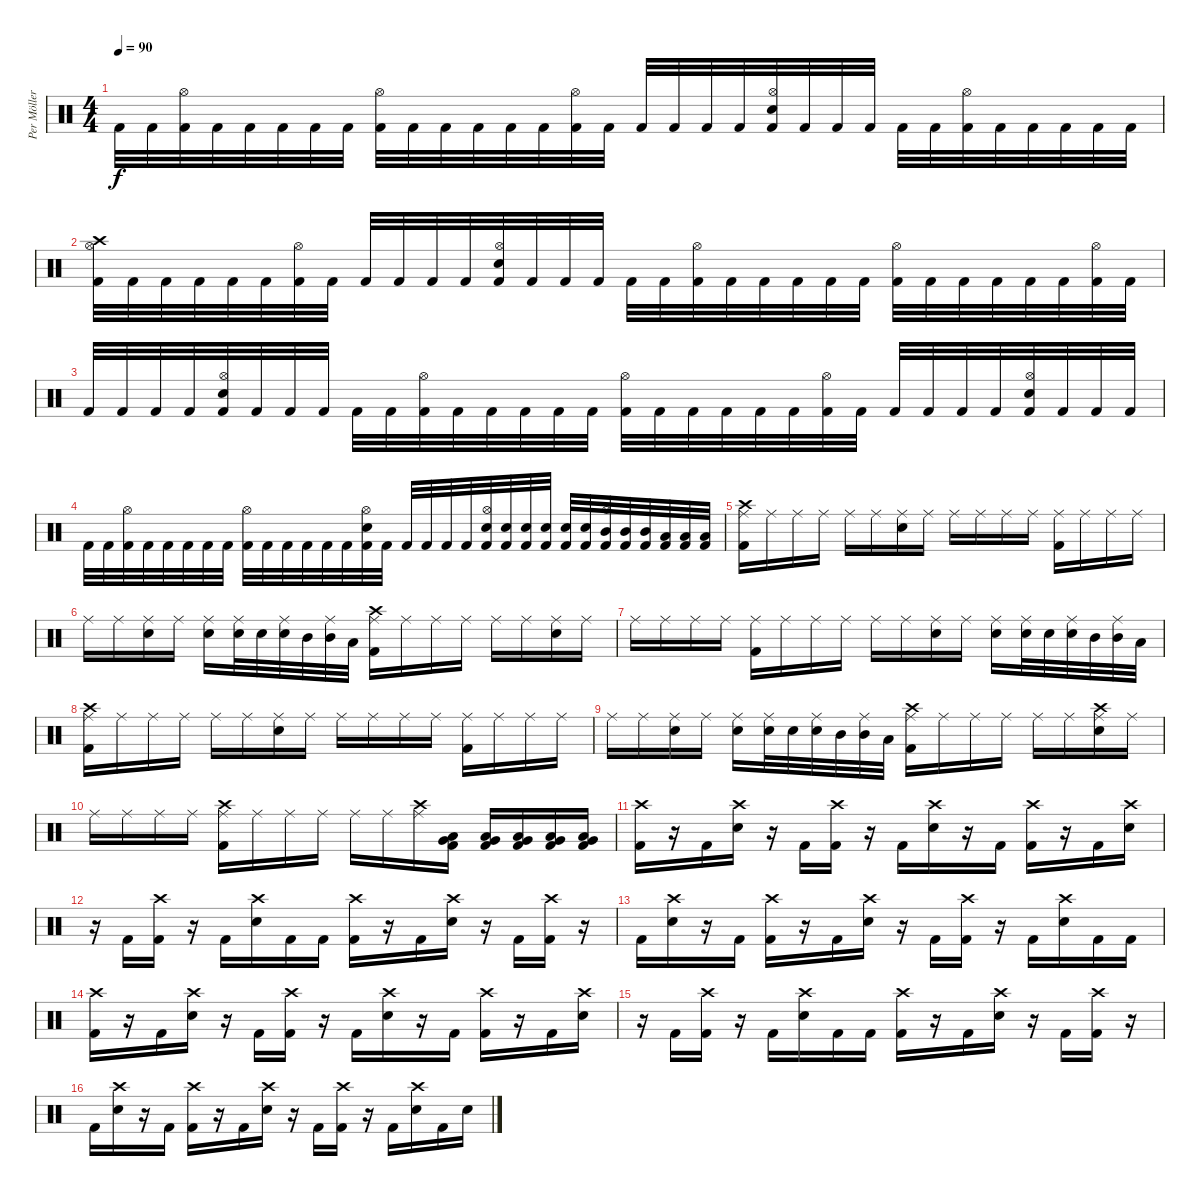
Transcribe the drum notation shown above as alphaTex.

\track ("Per Möller-Jensen" "Per Möller") {instrument percussion}
\staff {score}
\articulation defaults
\ts (4 4)
\tempo 90
\clef neutral
\ks c "Kick (hit) 2".32{dy f} "Kick (hit) 2".32
("Hi-Hat (open)" "Kick (hit) 2").32 "Kick (hit) 2".32 "Kick (hit) 2".32 "Kick (hit) 2".32 "Kick (hit) 2".32 "Kick (hit) 2".32 ("Hi-Hat (open)" "Kick (hit) 2").32 "Kick (hit) 2".32 "Kick (hit) 2".32 "Kick (hit) 2".32 "Kick (hit) 2".32 "Kick (hit) 2".32 ("Hi-Hat (open)" "Kick (hit) 2").32 "Kick (hit) 2".32 "Kick (hit) 2".32 "Kick (hit) 2".32 "Kick (hit) 2".32 "Kick (hit) 2".32 ("Snare (hit) 2" "Hi-Hat (open)" "Kick (hit) 2").32 "Kick (hit) 2".32 "Kick (hit) 2".32 "Kick (hit) 2".32 "Kick (hit) 2".32 "Kick (hit) 2".32 ("Hi-Hat (open)" "Kick (hit) 2").32 "Kick (hit) 2".32 "Kick (hit) 2".32 "Kick (hit) 2".32 "Kick (hit) 2".32 "Kick (hit) 2".32 |
("Crash high (hit)" "Hi-Hat (open)" "Kick (hit) 2").32 "Kick (hit) 2".32 "Kick (hit) 2".32 "Kick (hit) 2".32 "Kick (hit) 2".32 "Kick (hit) 2".32 ("Hi-Hat (open)" "Kick (hit) 2").32 "Kick (hit) 2".32 "Kick (hit) 2".32 "Kick (hit) 2".32 "Kick (hit) 2".32 "Kick (hit) 2".32 ("Snare (hit) 2" "Hi-Hat (open)" "Kick (hit) 2").32 "Kick (hit) 2".32 "Kick (hit) 2".32 "Kick (hit) 2".32 "Kick (hit) 2".32 "Kick (hit) 2".32 ("Hi-Hat (open)" "Kick (hit) 2").32 "Kick (hit) 2".32 "Kick (hit) 2".32 "Kick (hit) 2".32 "Kick (hit) 2".32 "Kick (hit) 2".32 ("Hi-Hat (open)" "Kick (hit) 2").32 "Kick (hit) 2".32 "Kick (hit) 2".32 "Kick (hit) 2".32 "Kick (hit) 2".32 "Kick (hit) 2".32 ("Hi-Hat (open)" "Kick (hit) 2").32 "Kick (hit) 2".32 |
"Kick (hit) 2".32 "Kick (hit) 2".32 "Kick (hit) 2".32 "Kick (hit) 2".32 ("Snare (hit) 2" "Hi-Hat (open)" "Kick (hit) 2").32 "Kick (hit) 2".32 "Kick (hit) 2".32 "Kick (hit) 2".32 "Kick (hit) 2".32 "Kick (hit) 2".32 ("Hi-Hat (open)" "Kick (hit) 2").32 "Kick (hit) 2".32 "Kick (hit) 2".32 "Kick (hit) 2".32 "Kick (hit) 2".32 "Kick (hit) 2".32 ("Hi-Hat (open)" "Kick (hit) 2").32 "Kick (hit) 2".32 "Kick (hit) 2".32 "Kick (hit) 2".32 "Kick (hit) 2".32 "Kick (hit) 2".32 ("Hi-Hat (open)" "Kick (hit) 2").32 "Kick (hit) 2".32 "Kick (hit) 2".32 "Kick (hit) 2".32 "Kick (hit) 2".32 "Kick (hit) 2".32 ("Snare (hit) 2" "Hi-Hat (open)" "Kick (hit) 2").32 "Kick (hit) 2".32 "Kick (hit) 2".32 "Kick (hit) 2".32 |
"Kick (hit) 2".32 "Kick (hit) 2".32 ("Hi-Hat (open)" "Kick (hit) 2").32 "Kick (hit) 2".32 "Kick (hit) 2".32 "Kick (hit) 2".32 "Kick (hit) 2".32 "Kick (hit) 2".32 ("Hi-Hat (open)" "Kick (hit) 2").32 "Kick (hit) 2".32 "Kick (hit) 2".32 "Kick (hit) 2".32 "Kick (hit) 2".32 "Kick (hit) 2".32 ("Snare (hit) 2" "Hi-Hat (open)" "Kick (hit) 2").32 "Kick (hit) 2".32 "Kick (hit) 2".32 "Kick (hit) 2".32 "Kick (hit) 2".32 "Kick (hit) 2".32 ("Snare (hit) 2" "Hi-Hat (open)" "Kick (hit) 2").32 ("Snare (hit) 2" "Kick (hit) 2").32 ("Snare (hit) 2" "Kick (hit) 2").32 ("Snare (hit) 2" "Kick (hit) 2").32 ("Snare (hit) 2" "Kick (hit) 2").32 ("Snare (hit) 2" "Kick (hit) 2").32 ("Mid Tom (hit)" "Hi-Hat (open)" "Kick (hit) 2").32 ("Mid Tom (hit)" "Kick (hit) 2").32 ("Mid Tom (hit)" "Kick (hit) 2").32 ("Low Tom (hit)" "Kick (hit) 2").32 ("Low Tom (hit)" "Kick (hit) 2").32 ("Low Tom (hit)" "Kick (hit) 2").32 |
("Crash high (hit)" "Ride (middle)" "Kick (hit) 2").16 "Ride (middle)".16 "Ride (middle)".16 "Ride (middle)".16 "Ride (middle)".16 "Ride (middle)".16 ("Snare (hit) 2" "Ride (middle)").16 "Ride (middle)".16 "Ride (middle)".16 "Ride (middle)".16 "Ride (middle)".16 "Ride (middle)".16 ("Ride (middle)" "Kick (hit) 2").16 "Ride (middle)".16 "Ride (middle)".16 "Ride (middle)".16 |
"Ride (middle)".16 "Ride (middle)".16 ("Snare (hit) 2" "Ride (middle)").16 "Ride (middle)".16 ("Snare (hit) 2" "Ride (middle)").16 ("Snare (hit) 2" "Ride (middle)").32 "Snare (hit) 2".32 ("Snare (hit) 2" "Ride (middle)").32 "Mid Tom (hit)".32 ("Mid Tom (hit)" "Ride (middle)").32 "Low Tom (hit)".32 ("Crash high (hit)" "Ride (middle)" "Kick (hit) 2").16 "Ride (middle)".16 "Ride (middle)".16 "Ride (middle)".16 "Ride (middle)".16 "Ride (middle)".16 ("Snare (hit) 2" "Ride (middle)").16 "Ride (middle)".16 |
"Ride (middle)".16 "Ride (middle)".16 "Ride (middle)".16 "Ride (middle)".16 ("Ride (middle)" "Kick (hit) 2").16 "Ride (middle)".16 "Ride (middle)".16 "Ride (middle)".16 "Ride (middle)".16 "Ride (middle)".16 ("Snare (hit) 2" "Ride (middle)").16 "Ride (middle)".16 ("Snare (hit) 2" "Ride (middle)").16 ("Snare (hit) 2" "Ride (middle)").32 "Snare (hit) 2".32 ("Snare (hit) 2" "Ride (middle)").32 "Mid Tom (hit)".32 ("Mid Tom (hit)" "Ride (middle)").32 "Low Tom (hit)".32 |
("Crash high (hit)" "Ride (middle)" "Kick (hit) 2").16 "Ride (middle)".16 "Ride (middle)".16 "Ride (middle)".16 "Ride (middle)".16 "Ride (middle)".16 ("Snare (hit) 2" "Ride (middle)").16 "Ride (middle)".16 "Ride (middle)".16 "Ride (middle)".16 "Ride (middle)".16 "Ride (middle)".16 ("Ride (middle)" "Kick (hit) 2").16 "Ride (middle)".16 "Ride (middle)".16 "Ride (middle)".16 |
"Ride (middle)".16 "Ride (middle)".16 ("Snare (hit) 2" "Ride (middle)").16 "Ride (middle)".16 ("Snare (hit) 2" "Ride (middle)").16 ("Snare (hit) 2" "Ride (middle)").32 "Snare (hit) 2".32 ("Snare (hit) 2" "Ride (middle)").32 "Mid Tom (hit)".32 ("Mid Tom (hit)" "Ride (middle)").32 "Low Tom (hit)".32 ("Crash high (hit)" "Ride (middle)" "Kick (hit) 2").16 "Ride (middle)".16 "Ride (middle)".16 "Ride (middle)".16 "Ride (middle)".16 "Ride (middle)".16 ("Crash high (hit)" "Snare (hit) 2" "Ride (middle)").16 "Ride (middle)".16 |
"Ride (middle)".16 "Ride (middle)".16 "Ride (middle)".16 "Ride (middle)".16 ("Crash high (hit)" "Ride (middle)" "Kick (hit) 2").16 "Ride (middle)".16 "Ride (middle)".16 "Ride (middle)".16 "Ride (middle)".16 "Ride (middle)".16 ("Crash high (hit)" "Ride (middle)").16 ("Very Low Tom (hit)" "Low Tom (hit)" "Kick (hit) 2").16 ("Very Low Tom (hit)" "Low Tom (hit)" "Kick (hit) 2").16 ("Very Low Tom (hit)" "Low Tom (hit)" "Kick (hit) 2").16 ("Very Low Tom (hit)" "Low Tom (hit)" "Kick (hit) 2").16 ("Very Low Tom (hit)" "Low Tom (hit)" "Kick (hit) 2").16 |
("Crash high (hit)" "Kick (hit) 2").16 r.16 "Kick (hit) 2".16 ("Crash high (hit)" "Snare (hit) 2").16 r.16 "Kick (hit) 2".16 ("Crash high (hit)" "Kick (hit) 2").16 r.16 "Kick (hit) 2".16 ("Crash high (hit)" "Snare (hit) 2").16 r.16 "Kick (hit) 2".16 ("Crash high (hit)" "Kick (hit) 2").16 r.16 "Kick (hit) 2".16 ("Crash high (hit)" "Snare (hit) 2").16 |
r.16 "Kick (hit) 2".16 ("Crash high (hit)" "Kick (hit) 2").16 r.16 "Kick (hit) 2".16 ("Crash high (hit)" "Snare (hit) 2").16 "Kick (hit) 2".16 "Kick (hit) 2".16 ("Crash high (hit)" "Kick (hit) 2").16 r.16 "Kick (hit) 2".16 ("Crash high (hit)" "Snare (hit) 2").16 r.16 "Kick (hit) 2".16 ("Crash high (hit)" "Kick (hit) 2").16 r.16 |
"Kick (hit) 2".16 ("Crash high (hit)" "Snare (hit) 2").16 r.16 "Kick (hit) 2".16 ("Crash high (hit)" "Kick (hit) 2").16 r.16 "Kick (hit) 2".16 ("Crash high (hit)" "Snare (hit) 2").16 r.16 "Kick (hit) 2".16 ("Crash high (hit)" "Kick (hit) 2").16 r.16 "Kick (hit) 2".16 ("Crash high (hit)" "Snare (hit) 2").16 "Kick (hit) 2".16 "Kick (hit) 2".16 |
("Crash high (hit)" "Kick (hit) 2").16 r.16 "Kick (hit) 2".16 ("Crash high (hit)" "Snare (hit) 2").16 r.16 "Kick (hit) 2".16 ("Crash high (hit)" "Kick (hit) 2").16 r.16 "Kick (hit) 2".16 ("Crash high (hit)" "Snare (hit) 2").16 r.16 "Kick (hit) 2".16 ("Crash high (hit)" "Kick (hit) 2").16 r.16 "Kick (hit) 2".16 ("Crash high (hit)" "Snare (hit) 2").16 |
r.16 "Kick (hit) 2".16 ("Crash high (hit)" "Kick (hit) 2").16 r.16 "Kick (hit) 2".16 ("Crash high (hit)" "Snare (hit) 2").16 "Kick (hit) 2".16 "Kick (hit) 2".16 ("Crash high (hit)" "Kick (hit) 2").16 r.16 "Kick (hit) 2".16 ("Crash high (hit)" "Snare (hit) 2").16 r.16 "Kick (hit) 2".16 ("Crash high (hit)" "Kick (hit) 2").16 r.16 |
"Kick (hit) 2".16 ("Crash high (hit)" "Snare (hit) 2").16 r.16 "Kick (hit) 2".16 ("Crash high (hit)" "Kick (hit) 2").16 r.16 "Kick (hit) 2".16 ("Crash high (hit)" "Snare (hit) 2").16 r.16 "Kick (hit) 2".16 ("Crash high (hit)" "Kick (hit) 2").16 r.16 "Kick (hit) 2".16 ("Crash high (hit)" "Snare (hit) 2").16 "Kick (hit) 2".16 "Snare (hit) 2".16
